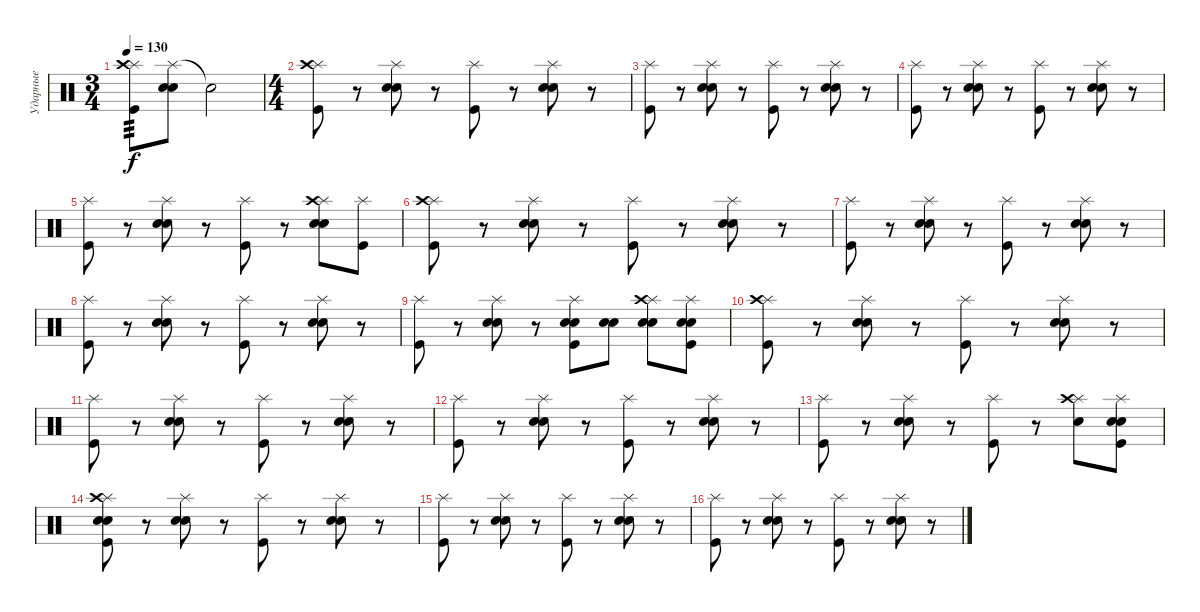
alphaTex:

\track ("Ударные" "Ударные") {instrument percussion}
\staff {score}
\articulation defaults
\ts (3 4)
\tempo 130
\clef neutral
\ks c
("Splash (hit)" "Crash high (hit)" "Kick (hit)").8{tp 3 dy f} ("Splash (hit)" "Electric Snare (hit)" "Electric Snare (hit)").8 "Snare (hit)"{t}.2 |
\ts (4 4)
("Splash (hit)" "Crash high (hit)" "Kick (hit)").8 r.8 ("Splash (hit)" "Electric Snare (hit)" "Electric Snare (hit)").8 r.8 ("Splash (hit)" "Kick (hit)").8 r.8 ("Splash (hit)" "Electric Snare (hit)" "Electric Snare (hit)").8 r.8 |
("Splash (hit)" "Kick (hit)").8 r.8 ("Splash (hit)" "Electric Snare (hit)" "Electric Snare (hit)").8 r.8 ("Splash (hit)" "Kick (hit)").8 r.8 ("Splash (hit)" "Electric Snare (hit)" "Electric Snare (hit)").8 r.8 |
("Splash (hit)" "Kick (hit)").8 r.8 ("Splash (hit)" "Electric Snare (hit)" "Electric Snare (hit)").8 r.8 ("Splash (hit)" "Kick (hit)").8 r.8 ("Splash (hit)" "Electric Snare (hit)" "Electric Snare (hit)").8 r.8 |
("Splash (hit)" "Kick (hit)").8 r.8 ("Splash (hit)" "Electric Snare (hit)" "Electric Snare (hit)").8 r.8 ("Splash (hit)" "Kick (hit)").8 r.8 ("Splash (hit)" "Crash high (hit)" "Electric Snare (hit)" "Electric Snare (hit)").8 ("Splash (hit)" "Kick (hit)").8 |
("Splash (hit)" "Crash high (hit)" "Kick (hit)").8 r.8 ("Splash (hit)" "Electric Snare (hit)" "Electric Snare (hit)").8 r.8 ("Splash (hit)" "Kick (hit)").8 r.8 ("Splash (hit)" "Electric Snare (hit)" "Electric Snare (hit)").8 r.8 |
("Splash (hit)" "Kick (hit)").8 r.8 ("Splash (hit)" "Electric Snare (hit)" "Electric Snare (hit)").8 r.8 ("Splash (hit)" "Kick (hit)").8 r.8 ("Splash (hit)" "Electric Snare (hit)" "Electric Snare (hit)").8 r.8 |
("Splash (hit)" "Kick (hit)").8 r.8 ("Splash (hit)" "Electric Snare (hit)" "Electric Snare (hit)").8 r.8 ("Splash (hit)" "Kick (hit)").8 r.8 ("Splash (hit)" "Electric Snare (hit)" "Electric Snare (hit)").8 r.8 |
("Splash (hit)" "Kick (hit)").8 r.8 ("Splash (hit)" "Electric Snare (hit)" "Electric Snare (hit)").8 r.8 ("Splash (hit)" "Electric Snare (hit)" "Electric Snare (hit)" "Kick (hit)").8 ("Snare (hit) 2" "Snare (hit) 2").8 ("Splash (hit)" "Crash high (hit)" "Electric Snare (hit)" "Electric Snare (hit)").8 ("Splash (hit)" "Snare (hit) 2" "Snare (hit) 2" "Kick (hit)").8 |
("Splash (hit)" "Crash high (hit)" "Kick (hit)").8 r.8 ("Splash (hit)" "Electric Snare (hit)" "Electric Snare (hit)").8 r.8 ("Splash (hit)" "Kick (hit)").8 r.8 ("Splash (hit)" "Electric Snare (hit)" "Electric Snare (hit)").8 r.8 |
("Splash (hit)" "Kick (hit)").8 r.8 ("Splash (hit)" "Electric Snare (hit)" "Electric Snare (hit)").8 r.8 ("Splash (hit)" "Kick (hit)").8 r.8 ("Splash (hit)" "Electric Snare (hit)" "Electric Snare (hit)").8 r.8 |
("Splash (hit)" "Kick (hit)").8 r.8 ("Splash (hit)" "Electric Snare (hit)" "Electric Snare (hit)").8 r.8 ("Splash (hit)" "Kick (hit)").8 r.8 ("Splash (hit)" "Electric Snare (hit)" "Electric Snare (hit)").8 r.8 |
("Splash (hit)" "Kick (hit)").8 r.8 ("Splash (hit)" "Electric Snare (hit)" "Electric Snare (hit)").8 r.8 ("Splash (hit)" "Kick (hit)").8 r.8 ("Splash (hit)" "Crash high (hit)" "Electric Snare (hit)").8 ("Splash (hit)" "Electric Snare (hit)" "Electric Snare (hit)" "Kick (hit)").8 |
("Splash (hit)" "Crash high (hit)" "Electric Snare (hit)" "Electric Snare (hit)" "Kick (hit)").8 r.8 ("Splash (hit)" "Electric Snare (hit)" "Electric Snare (hit)").8 r.8 ("Splash (hit)" "Kick (hit)").8 r.8 ("Splash (hit)" "Electric Snare (hit)" "Electric Snare (hit)").8 r.8 |
("Splash (hit)" "Kick (hit)").8 r.8 ("Splash (hit)" "Electric Snare (hit)" "Electric Snare (hit)").8 r.8 ("Splash (hit)" "Kick (hit)").8 r.8 ("Splash (hit)" "Electric Snare (hit)" "Electric Snare (hit)").8 r.8 |
("Splash (hit)" "Kick (hit)").8 r.8 ("Splash (hit)" "Electric Snare (hit)" "Electric Snare (hit)").8 r.8 ("Splash (hit)" "Kick (hit)").8 r.8 ("Splash (hit)" "Electric Snare (hit)" "Electric Snare (hit)").8 r.8
